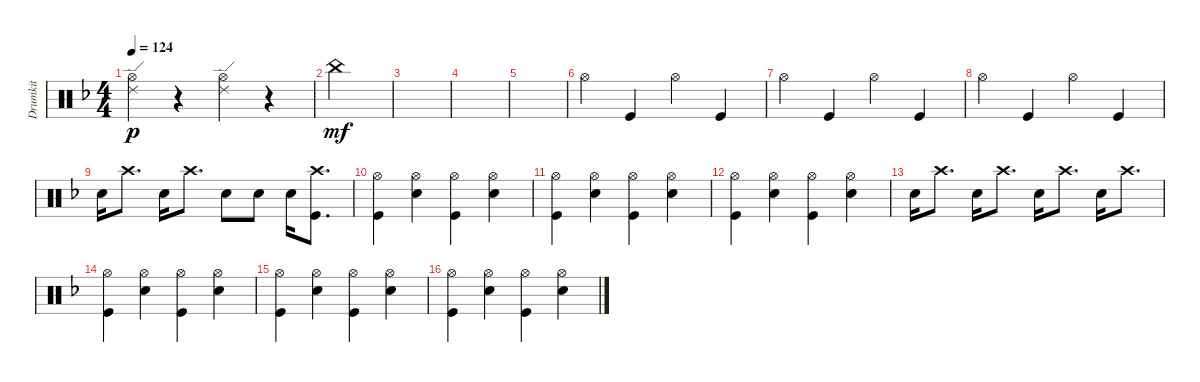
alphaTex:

\track ("Drumkit" "Drumkit") {instrument percussion}
\staff {score}
\articulation defaults
\ts (4 4)
\tempo 124
\clef neutral
\ks dminor
("Hi-Hat (open)" "Ride (edge) 2").4{dy p} r.4 ("Hi-Hat (open)" "Ride (edge) 2").4 r.4 |
"China (hit)".2{dy mf} |
|
|
|
"Hi-Hat (open)".4 "Kick (hit)".4 "Hi-Hat (open)".4 "Kick (hit)".4 |
"Hi-Hat (open)".4 "Kick (hit)".4 "Hi-Hat (open)".4 "Kick (hit)".4 |
"Hi-Hat (open)".4 "Kick (hit)".4 "Hi-Hat (open)".4 "Kick (hit)".4 |
"Snare (hit) 2".16 "Crash high (hit)".8{d} "Snare (hit) 2".16 "Crash high (hit)".8{d} "Snare (hit) 2".8 "Snare (hit) 2".8 "Snare (hit) 2".16 ("Kick (hit)" "Crash high (hit)").8{d} |
("Kick (hit)" "Hi-Hat (open)").4 ("Snare (hit) 2" "Hi-Hat (open)").4 ("Kick (hit)" "Hi-Hat (open)").4 ("Snare (hit) 2" "Hi-Hat (open)").4 |
("Kick (hit)" "Hi-Hat (open)").4 ("Snare (hit) 2" "Hi-Hat (open)").4 ("Kick (hit)" "Hi-Hat (open)").4 ("Snare (hit) 2" "Hi-Hat (open)").4 |
("Kick (hit)" "Hi-Hat (open)").4 ("Snare (hit) 2" "Hi-Hat (open)").4 ("Kick (hit)" "Hi-Hat (open)").4 ("Snare (hit) 2" "Hi-Hat (open)").4 |
"Snare (hit) 2".16 "Crash high (hit)".8{d} "Snare (hit) 2".16 "Crash high (hit)".8{d} "Snare (hit) 2".16 "Crash high (hit)".8{d} "Snare (hit) 2".16 "Crash high (hit)".8{d} |
("Kick (hit)" "Hi-Hat (open)").4 ("Snare (hit) 2" "Hi-Hat (open)").4 ("Kick (hit)" "Hi-Hat (open)").4 ("Snare (hit) 2" "Hi-Hat (open)").4 |
("Kick (hit)" "Hi-Hat (open)").4 ("Snare (hit) 2" "Hi-Hat (open)").4 ("Kick (hit)" "Hi-Hat (open)").4 ("Snare (hit) 2" "Hi-Hat (open)").4 |
("Kick (hit)" "Hi-Hat (open)").4 ("Snare (hit) 2" "Hi-Hat (open)").4 ("Kick (hit)" "Hi-Hat (open)").4 ("Snare (hit) 2" "Hi-Hat (open)").4
